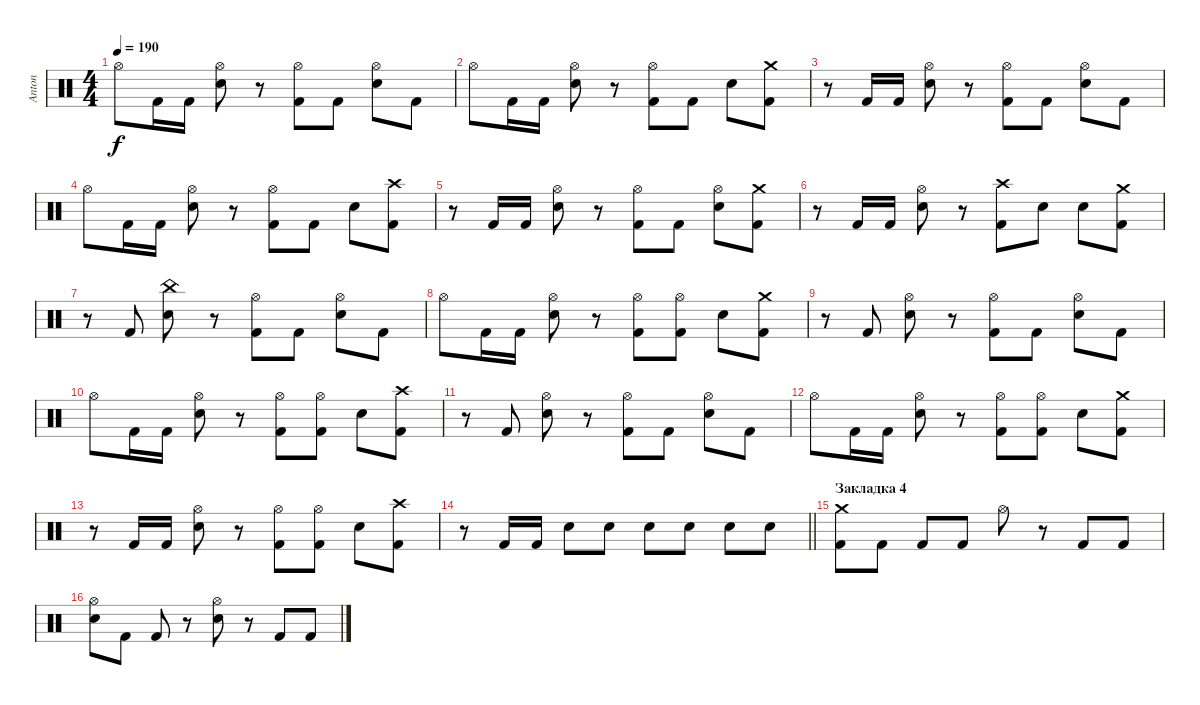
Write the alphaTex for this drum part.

\track ("Anton" "Anton") {instrument percussion}
\staff {score}
\articulation defaults
\ts (4 4)
\tempo 190
\clef neutral
\ks c "Hi-Hat (open)".8{dy f} "Kick (hit) 2".16 "Kick (hit) 2".16
("Hi-Hat (open)" "Electric Snare (hit)").8 r.8 ("Hi-Hat (open)" "Kick (hit) 2").8 "Kick (hit) 2".8 ("Hi-Hat (open)" "Electric Snare (hit)").8 "Kick (hit) 2".8 |
"Hi-Hat (open)".8 "Kick (hit) 2".16 "Kick (hit) 2".16 ("Hi-Hat (open)" "Electric Snare (hit)").8 r.8 ("Hi-Hat (open)" "Kick (hit) 2").8 "Kick (hit) 2".8 "Electric Snare (hit)".8 ("Crash medium (hit)" "Kick (hit) 2").8 |
r.8 "Kick (hit) 2".16 "Kick (hit) 2".16 ("Hi-Hat (open)" "Electric Snare (hit)").8 r.8 ("Hi-Hat (open)" "Kick (hit) 2").8 "Kick (hit) 2".8 ("Hi-Hat (open)" "Electric Snare (hit)").8 "Kick (hit) 2".8 |
"Hi-Hat (open)".8 "Kick (hit) 2".16 "Kick (hit) 2".16 ("Hi-Hat (open)" "Electric Snare (hit)").8 r.8 ("Hi-Hat (open)" "Kick (hit) 2").8 "Kick (hit) 2".8 "Electric Snare (hit)".8 ("Crash high (hit)" "Kick (hit) 2").8 |
r.8 "Kick (hit) 2".16 "Kick (hit) 2".16 ("Hi-Hat (open)" "Electric Snare (hit)").8 r.8 ("Hi-Hat (open)" "Kick (hit) 2").8 "Kick (hit) 2".8 ("Hi-Hat (open)" "Electric Snare (hit)").8 ("Crash medium (hit)" "Kick (hit) 2").8 |
r.8 "Kick (hit) 2".16 "Kick (hit) 2".16 ("Hi-Hat (open)" "Electric Snare (hit)").8 r.8 ("Crash high (hit)" "Kick (hit) 2").8 "Electric Snare (hit)".8 "Electric Snare (hit)".8 ("Crash medium (hit)" "Kick (hit) 2").8 |
r.8 "Kick (hit) 2".8 ("China (hit)" "Electric Snare (hit)").8 r.8 ("Hi-Hat (open)" "Kick (hit) 2").8 "Kick (hit) 2".8 ("Hi-Hat (open)" "Electric Snare (hit)").8 "Kick (hit) 2".8 |
"Hi-Hat (open)".8 "Kick (hit) 2".16 "Kick (hit) 2".16 ("Hi-Hat (open)" "Electric Snare (hit)").8 r.8 ("Hi-Hat (open)" "Kick (hit) 2").8 ("Hi-Hat (open)" "Kick (hit) 2").8 "Electric Snare (hit)".8 ("Crash medium (hit)" "Kick (hit) 2").8 |
r.8 "Kick (hit) 2".8 ("Hi-Hat (open)" "Electric Snare (hit)").8 r.8 ("Hi-Hat (open)" "Kick (hit) 2").8 "Kick (hit) 2".8 ("Hi-Hat (open)" "Electric Snare (hit)").8 "Kick (hit) 2".8 |
"Hi-Hat (open)".8 "Kick (hit) 2".16 "Kick (hit) 2".16 ("Hi-Hat (open)" "Electric Snare (hit)").8 r.8 ("Hi-Hat (open)" "Kick (hit) 2").8 ("Hi-Hat (open)" "Kick (hit) 2").8 "Electric Snare (hit)".8 ("Crash high (hit)" "Kick (hit) 2").8 |
r.8 "Kick (hit) 2".8 ("Hi-Hat (open)" "Electric Snare (hit)").8 r.8 ("Hi-Hat (open)" "Kick (hit) 2").8 "Kick (hit) 2".8 ("Hi-Hat (open)" "Electric Snare (hit)").8 "Kick (hit) 2".8 |
"Hi-Hat (open)".8 "Kick (hit) 2".16 "Kick (hit) 2".16 ("Hi-Hat (open)" "Electric Snare (hit)").8 r.8 ("Hi-Hat (open)" "Kick (hit) 2").8 ("Hi-Hat (open)" "Kick (hit) 2").8 "Electric Snare (hit)".8 ("Crash medium (hit)" "Kick (hit) 2").8 |
r.8 "Kick (hit) 2".16 "Kick (hit) 2".16 ("Hi-Hat (open)" "Electric Snare (hit)").8 r.8 ("Hi-Hat (open)" "Kick (hit) 2").8 ("Hi-Hat (open)" "Kick (hit) 2").8 "Electric Snare (hit)".8 ("Crash high (hit)" "Kick (hit) 2").8 |
\barLineRight lightlight
r.8 "Kick (hit) 2".16 "Kick (hit) 2".16 "Electric Snare (hit)".8 "Electric Snare (hit)".8 "Electric Snare (hit)".8 "Electric Snare (hit)".8 "Electric Snare (hit)".8 "Electric Snare (hit)".8 |
\section ("" "Закладка 4")
("Crash medium (hit)" "Kick (hit) 2").8 "Kick (hit) 2".8 "Kick (hit) 2".8 "Kick (hit) 2".8 "Hi-Hat (open)".8 r.8 "Kick (hit) 2".8 "Kick (hit) 2".8 |
("Hi-Hat (open)" "Electric Snare (hit)").8 "Kick (hit) 2".8 "Kick (hit) 2".8 r.8 ("Hi-Hat (open)" "Electric Snare (hit)").8 r.8 "Kick (hit) 2".8 "Kick (hit) 2".8
